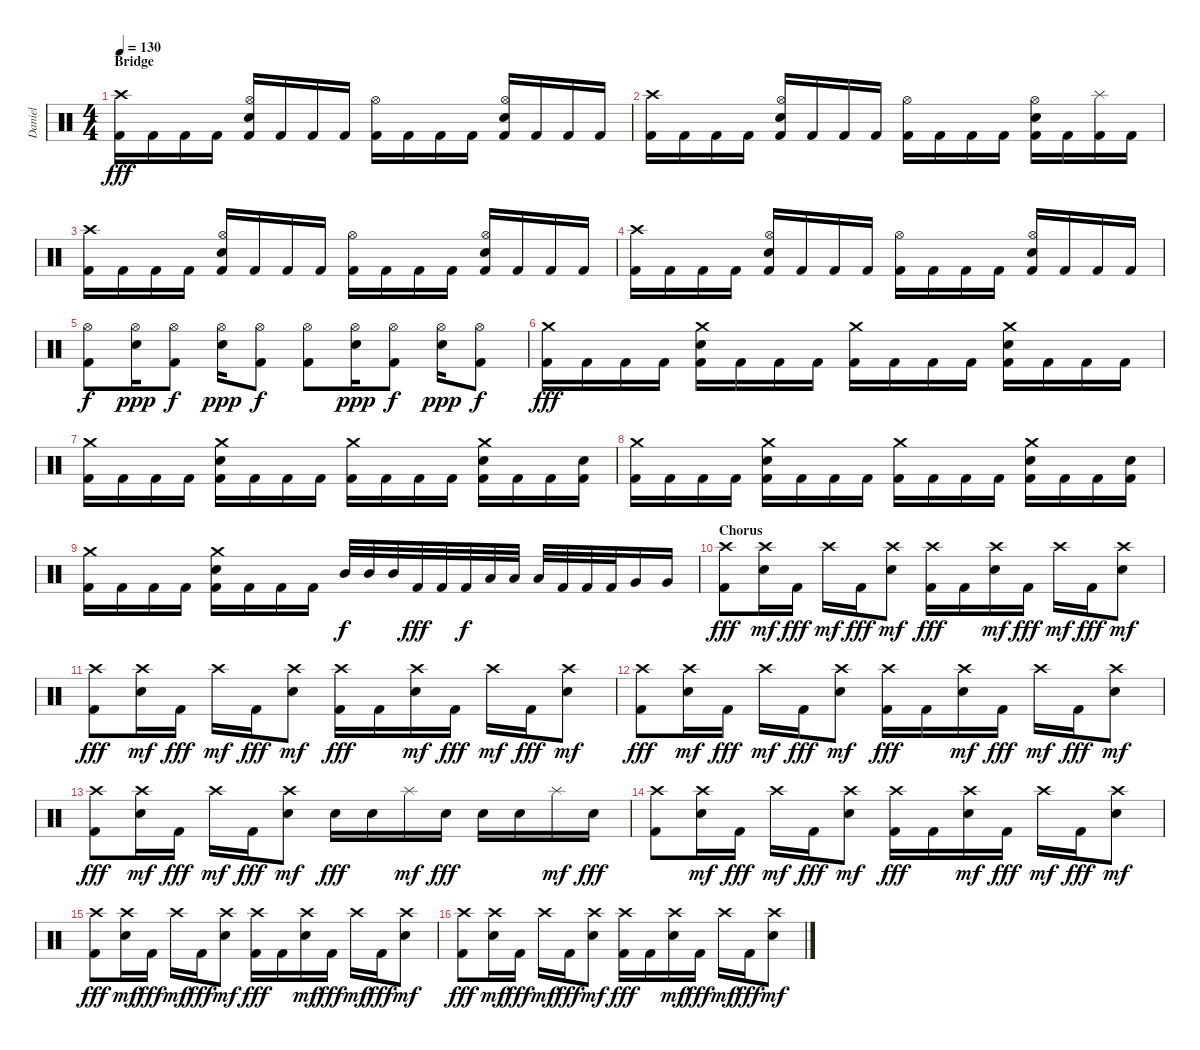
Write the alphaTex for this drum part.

\track ("Daniel" "Daniel") {instrument percussion}
\staff {score}
\articulation defaults
\ts (4 4)
\section ("" "Bridge")
\tempo 130
\clef neutral
\ks c
("Crash high (hit)" "Kick (hit) 2").16{dy fff} "Kick (hit) 2".16 "Kick (hit) 2".16 "Kick (hit) 2".16 ("Hi-Hat (open)" "Electric Snare (hit)" "Kick (hit) 2").16 "Kick (hit) 2".16 "Kick (hit) 2".16 "Kick (hit) 2".16 ("Hi-Hat (open)" "Kick (hit) 2").16 "Kick (hit) 2".16 "Kick (hit) 2".16 "Kick (hit) 2".16 ("Hi-Hat (open)" "Electric Snare (hit)" "Kick (hit) 2").16 "Kick (hit) 2".16 "Kick (hit) 2".16 "Kick (hit) 2".16 |
("Crash high (hit)" "Kick (hit) 2").16 "Kick (hit) 2".16 "Kick (hit) 2".16 "Kick (hit) 2".16 ("Hi-Hat (open)" "Electric Snare (hit)" "Kick (hit) 2").16 "Kick (hit) 2".16 "Kick (hit) 2".16 "Kick (hit) 2".16 ("Hi-Hat (open)" "Kick (hit) 2").16 "Kick (hit) 2".16 "Kick (hit) 2".16 "Kick (hit) 2".16 ("Hi-Hat (open)" "Electric Snare (hit)" "Kick (hit) 2").16 "Kick (hit) 2".16 ("Splash (hit)" "Kick (hit) 2").16 "Kick (hit) 2".16 |
("Crash high (hit)" "Kick (hit) 2").16 "Kick (hit) 2".16 "Kick (hit) 2".16 "Kick (hit) 2".16 ("Hi-Hat (open)" "Electric Snare (hit)" "Kick (hit) 2").16 "Kick (hit) 2".16 "Kick (hit) 2".16 "Kick (hit) 2".16 ("Hi-Hat (open)" "Kick (hit) 2").16 "Kick (hit) 2".16 "Kick (hit) 2".16 "Kick (hit) 2".16 ("Hi-Hat (open)" "Electric Snare (hit)" "Kick (hit) 2").16 "Kick (hit) 2".16 "Kick (hit) 2".16 "Kick (hit) 2".16 |
("Crash high (hit)" "Kick (hit) 2").16 "Kick (hit) 2".16 "Kick (hit) 2".16 "Kick (hit) 2".16 ("Hi-Hat (open)" "Electric Snare (hit)" "Kick (hit) 2").16 "Kick (hit) 2".16 "Kick (hit) 2".16 "Kick (hit) 2".16 ("Hi-Hat (open)" "Kick (hit) 2").16 "Kick (hit) 2".16 "Kick (hit) 2".16 "Kick (hit) 2".16 ("Hi-Hat (open)" "Electric Snare (hit)" "Kick (hit) 2").16 "Kick (hit) 2".16 "Kick (hit) 2".16 "Kick (hit) 2".16 |
("Hi-Hat (open)" "Kick (hit) 2").8{dy f} ("Hi-Hat (open)" "Electric Snare (hit)").16{dy ppp} ("Hi-Hat (open)" "Kick (hit) 2").8{dy f} ("Hi-Hat (open)" "Electric Snare (hit)").16{dy ppp} ("Hi-Hat (open)" "Kick (hit) 2").8{dy f} ("Hi-Hat (open)" "Kick (hit) 2").8 ("Hi-Hat (open)" "Electric Snare (hit)").16{dy ppp} ("Hi-Hat (open)" "Kick (hit) 2").8{dy f} ("Hi-Hat (open)" "Electric Snare (hit)").16{dy ppp} ("Hi-Hat (open)" "Kick (hit) 2").8{dy f} |
("Crash medium (hit)" "Kick (hit) 2").16{dy fff} "Kick (hit) 2".16 "Kick (hit) 2".16 "Kick (hit) 2".16 ("Crash medium (hit)" "Electric Snare (hit)" "Kick (hit) 2").16 "Kick (hit) 2".16 "Kick (hit) 2".16 "Kick (hit) 2".16 ("Crash medium (hit)" "Kick (hit) 2").16 "Kick (hit) 2".16 "Kick (hit) 2".16 "Kick (hit) 2".16 ("Crash medium (hit)" "Electric Snare (hit)" "Kick (hit) 2").16 "Kick (hit) 2".16 "Kick (hit) 2".16 "Kick (hit) 2".16 |
("Crash medium (hit)" "Kick (hit) 2").16 "Kick (hit) 2".16 "Kick (hit) 2".16 "Kick (hit) 2".16 ("Crash medium (hit)" "Electric Snare (hit)" "Kick (hit) 2").16 "Kick (hit) 2".16 "Kick (hit) 2".16 "Kick (hit) 2".16 ("Crash medium (hit)" "Kick (hit) 2").16 "Kick (hit) 2".16 "Kick (hit) 2".16 "Kick (hit) 2".16 ("Crash medium (hit)" "Electric Snare (hit)" "Kick (hit) 2").16 "Kick (hit) 2".16 "Kick (hit) 2".16 ("Electric Snare (hit)" "Kick (hit) 2").16 |
("Crash medium (hit)" "Kick (hit) 2").16 "Kick (hit) 2".16 "Kick (hit) 2".16 "Kick (hit) 2".16 ("Crash medium (hit)" "Electric Snare (hit)" "Kick (hit) 2").16 "Kick (hit) 2".16 "Kick (hit) 2".16 "Kick (hit) 2".16 ("Crash medium (hit)" "Kick (hit) 2").16 "Kick (hit) 2".16 "Kick (hit) 2".16 "Kick (hit) 2".16 ("Crash medium (hit)" "Electric Snare (hit)" "Kick (hit) 2").16 "Kick (hit) 2".16 "Kick (hit) 2".16 ("Electric Snare (hit)" "Kick (hit) 2").16 |
("Crash medium (hit)" "Kick (hit) 2").16 "Kick (hit) 2".16 "Kick (hit) 2".16 "Kick (hit) 2".16 ("Crash medium (hit)" "Electric Snare (hit)" "Kick (hit) 2").16 "Kick (hit) 2".16 "Kick (hit) 2".16 "Kick (hit) 2".16 "Mid Tom (hit)".32{dy f} "Mid Tom (hit)".32 "Mid Tom (hit)".32 "Kick (hit) 2".32{dy fff} "Kick (hit) 2".32 "Kick (hit) 2".32{dy f} "Low Tom (hit)".32 "Low Tom (hit)".32 "Low Tom (hit)".32 "Kick (hit) 2".32 "Kick (hit) 2".32 "Kick (hit) 2".32 "Very Low Tom (hit)".16 "Very Low Tom (hit)".16 |
\section ("" "Chorus")
("Crash high (hit)" "Kick (hit) 2").8{dy fff} ("Crash high (hit)" "Electric Snare (hit)").16{dy mf} "Kick (hit) 2".16{dy fff} "Crash high (hit)".16{dy mf} "Kick (hit) 2".16{dy fff} ("Crash high (hit)" "Electric Snare (hit)").8{dy mf} ("Crash high (hit)" "Kick (hit) 2").16{dy fff} "Kick (hit) 2".16 ("Crash high (hit)" "Electric Snare (hit)").16{dy mf} "Kick (hit) 2".16{dy fff} "Crash high (hit)".16{dy mf} "Kick (hit) 2".16{dy fff} ("Crash high (hit)" "Electric Snare (hit)").8{dy mf} |
("Crash high (hit)" "Kick (hit) 2").8{dy fff} ("Crash high (hit)" "Electric Snare (hit)").16{dy mf} "Kick (hit) 2".16{dy fff} "Crash high (hit)".16{dy mf} "Kick (hit) 2".16{dy fff} ("Crash high (hit)" "Electric Snare (hit)").8{dy mf} ("Crash high (hit)" "Kick (hit) 2").16{dy fff} "Kick (hit) 2".16 ("Crash high (hit)" "Electric Snare (hit)").16{dy mf} "Kick (hit) 2".16{dy fff} "Crash high (hit)".16{dy mf} "Kick (hit) 2".16{dy fff} ("Crash high (hit)" "Electric Snare (hit)").8{dy mf} |
("Crash high (hit)" "Kick (hit) 2").8{dy fff} ("Crash high (hit)" "Electric Snare (hit)").16{dy mf} "Kick (hit) 2".16{dy fff} "Crash high (hit)".16{dy mf} "Kick (hit) 2".16{dy fff} ("Crash high (hit)" "Electric Snare (hit)").8{dy mf} ("Crash high (hit)" "Kick (hit) 2").16{dy fff} "Kick (hit) 2".16 ("Crash high (hit)" "Electric Snare (hit)").16{dy mf} "Kick (hit) 2".16{dy fff} "Crash high (hit)".16{dy mf} "Kick (hit) 2".16{dy fff} ("Crash high (hit)" "Electric Snare (hit)").8{dy mf} |
("Crash high (hit)" "Kick (hit) 2").8{dy fff} ("Crash high (hit)" "Electric Snare (hit)").16{dy mf} "Kick (hit) 2".16{dy fff} "Crash high (hit)".16{dy mf} "Kick (hit) 2".16{dy fff} ("Crash high (hit)" "Electric Snare (hit)").8{dy mf} "Electric Snare (hit)".16{dy fff} "Electric Snare (hit)".16 "Splash (hit)".16{dy mf} "Electric Snare (hit)".16{dy fff} "Electric Snare (hit)".16 "Electric Snare (hit)".16 "Splash (hit)".16{dy mf} "Electric Snare (hit)".16{dy fff} |
("Crash high (hit)" "Kick (hit) 2").8 ("Crash high (hit)" "Electric Snare (hit)").16{dy mf} "Kick (hit) 2".16{dy fff} "Crash high (hit)".16{dy mf} "Kick (hit) 2".16{dy fff} ("Crash high (hit)" "Electric Snare (hit)").8{dy mf} ("Crash high (hit)" "Kick (hit) 2").16{dy fff} "Kick (hit) 2".16 ("Crash high (hit)" "Electric Snare (hit)").16{dy mf} "Kick (hit) 2".16{dy fff} "Crash high (hit)".16{dy mf} "Kick (hit) 2".16{dy fff} ("Crash high (hit)" "Electric Snare (hit)").8{dy mf} |
("Crash high (hit)" "Kick (hit) 2").8{dy fff} ("Crash high (hit)" "Electric Snare (hit)").16{dy mf} "Kick (hit) 2".16{dy fff} "Crash high (hit)".16{dy mf} "Kick (hit) 2".16{dy fff} ("Crash high (hit)" "Electric Snare (hit)").8{dy mf} ("Crash high (hit)" "Kick (hit) 2").16{dy fff} "Kick (hit) 2".16 ("Crash high (hit)" "Electric Snare (hit)").16{dy mf} "Kick (hit) 2".16{dy fff} "Crash high (hit)".16{dy mf} "Kick (hit) 2".16{dy fff} ("Crash high (hit)" "Electric Snare (hit)").8{dy mf} |
("Crash high (hit)" "Kick (hit) 2").8{dy fff} ("Crash high (hit)" "Electric Snare (hit)").16{dy mf} "Kick (hit) 2".16{dy fff} "Crash high (hit)".16{dy mf} "Kick (hit) 2".16{dy fff} ("Crash high (hit)" "Electric Snare (hit)").8{dy mf} ("Crash high (hit)" "Kick (hit) 2").16{dy fff} "Kick (hit) 2".16 ("Crash high (hit)" "Electric Snare (hit)").16{dy mf} "Kick (hit) 2".16{dy fff} "Crash high (hit)".16{dy mf} "Kick (hit) 2".16{dy fff} ("Crash high (hit)" "Electric Snare (hit)").8{dy mf}
